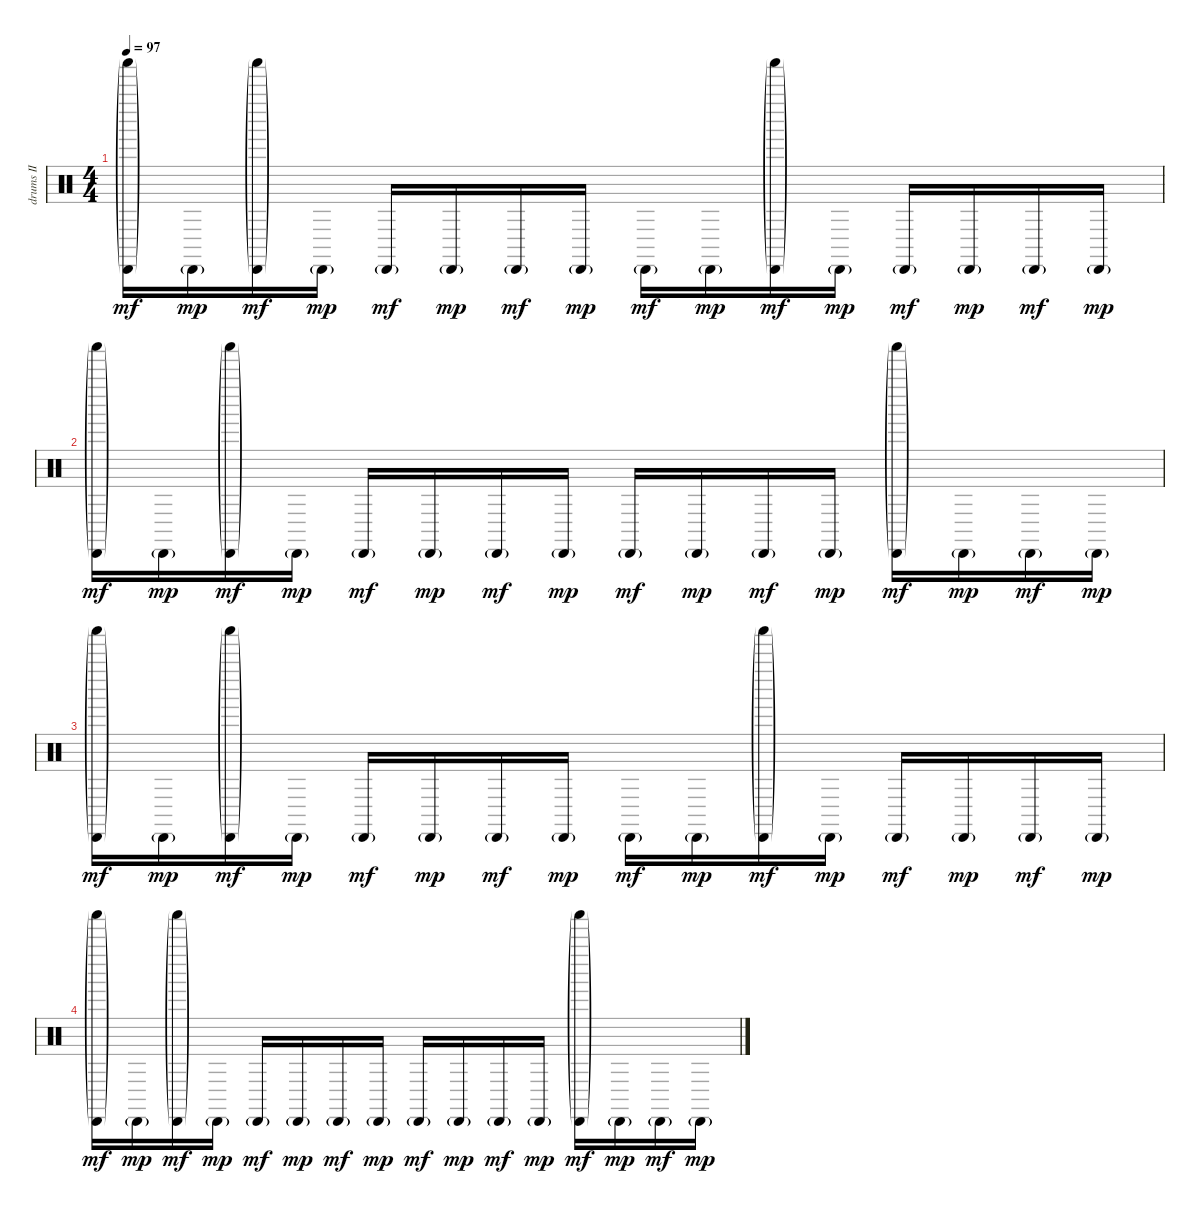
\track ("drums II" "drums II") {instrument percussion}
\staff {score}
\articulation defaults
\ts (4 4)
\tempo 97
\clef neutral
\ks c
("Shaker (hit)"{g} "Cabasa (hit)"{g}).16{dy mf} "Cabasa (hit)"{g}.16{dy mp} ("Shaker (hit)"{g} "Cabasa (hit)"{g}).16{dy mf} "Cabasa (hit)"{g}.16{dy mp} "Cabasa (hit)"{g}.16{dy mf} "Cabasa (hit)"{g}.16{dy mp} "Cabasa (hit)"{g}.16{dy mf} "Cabasa (hit)"{g}.16{dy mp} "Cabasa (hit)"{g}.16{dy mf} "Cabasa (hit)"{g}.16{dy mp} ("Shaker (hit)"{g} "Cabasa (hit)"{g}).16{dy mf} "Cabasa (hit)"{g}.16{dy mp} "Cabasa (hit)"{g}.16{dy mf} "Cabasa (hit)"{g}.16{dy mp} "Cabasa (hit)"{g}.16{dy mf} "Cabasa (hit)"{g}.16{dy mp} |
("Shaker (hit)"{g} "Cabasa (hit)"{g}).16{dy mf} "Cabasa (hit)"{g}.16{dy mp} ("Shaker (hit)"{g} "Cabasa (hit)"{g}).16{dy mf} "Cabasa (hit)"{g}.16{dy mp} "Cabasa (hit)"{g}.16{dy mf} "Cabasa (hit)"{g}.16{dy mp} "Cabasa (hit)"{g}.16{dy mf} "Cabasa (hit)"{g}.16{dy mp} "Cabasa (hit)"{g}.16{dy mf} "Cabasa (hit)"{g}.16{dy mp} "Cabasa (hit)"{g}.16{dy mf} "Cabasa (hit)"{g}.16{dy mp} ("Shaker (hit)"{g} "Cabasa (hit)"{g}).16{dy mf} "Cabasa (hit)"{g}.16{dy mp} "Cabasa (hit)"{g}.16{dy mf} "Cabasa (hit)"{g}.16{dy mp} |
("Shaker (hit)"{g} "Cabasa (hit)"{g}).16{dy mf} "Cabasa (hit)"{g}.16{dy mp} ("Shaker (hit)"{g} "Cabasa (hit)"{g}).16{dy mf} "Cabasa (hit)"{g}.16{dy mp} "Cabasa (hit)"{g}.16{dy mf} "Cabasa (hit)"{g}.16{dy mp} "Cabasa (hit)"{g}.16{dy mf} "Cabasa (hit)"{g}.16{dy mp} "Cabasa (hit)"{g}.16{dy mf} "Cabasa (hit)"{g}.16{dy mp} ("Shaker (hit)"{g} "Cabasa (hit)"{g}).16{dy mf} "Cabasa (hit)"{g}.16{dy mp} "Cabasa (hit)"{g}.16{dy mf} "Cabasa (hit)"{g}.16{dy mp} "Cabasa (hit)"{g}.16{dy mf} "Cabasa (hit)"{g}.16{dy mp} |
("Shaker (hit)"{g} "Cabasa (hit)"{g}).16{dy mf} "Cabasa (hit)"{g}.16{dy mp} ("Shaker (hit)"{g} "Cabasa (hit)"{g}).16{dy mf} "Cabasa (hit)"{g}.16{dy mp} "Cabasa (hit)"{g}.16{dy mf} "Cabasa (hit)"{g}.16{dy mp} "Cabasa (hit)"{g}.16{dy mf} "Cabasa (hit)"{g}.16{dy mp} "Cabasa (hit)"{g}.16{dy mf} "Cabasa (hit)"{g}.16{dy mp} "Cabasa (hit)"{g}.16{dy mf} "Cabasa (hit)"{g}.16{dy mp} ("Shaker (hit)"{g} "Cabasa (hit)"{g}).16{dy mf} "Cabasa (hit)"{g}.16{dy mp} "Cabasa (hit)"{g}.16{dy mf} "Cabasa (hit)"{g}.16{dy mp}
